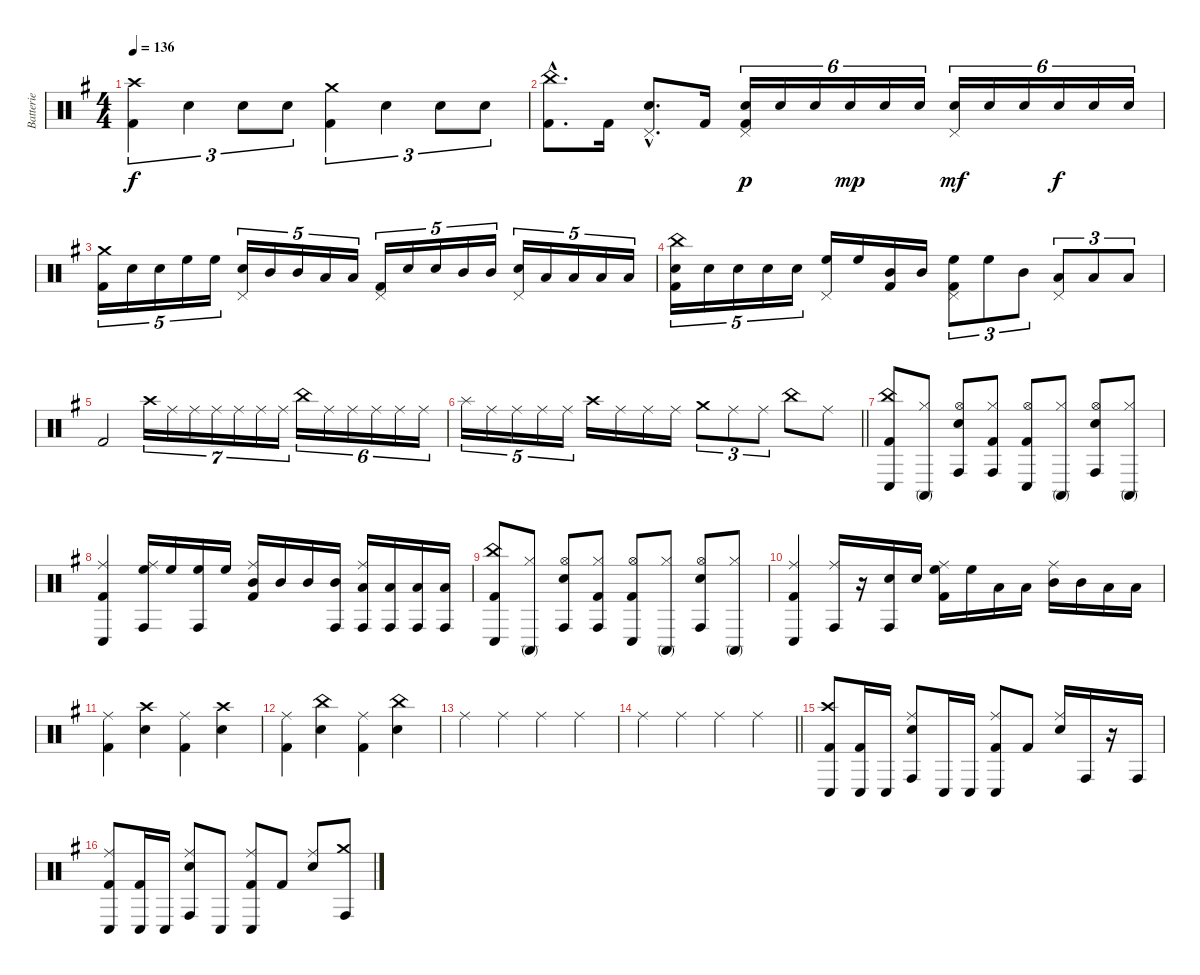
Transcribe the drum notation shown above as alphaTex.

\track ("Batterie" "Batterie") {instrument percussion}
\staff {score}
\articulation defaults
\ts (4 4)
\tempo 136
\clef neutral
\ks g
("Crash high (hit)" "Kick (hit) 2").4{tu (3 2) dy f} "Snare (hit) 2".4{tu (3 2)} "Snare (hit) 2".8{tu (3 2)} "Snare (hit) 2".8{tu (3 2)} ("Crash medium (hit)" "Kick (hit) 2").4{tu (3 2)} "Snare (hit) 2".4{tu (3 2)} "Snare (hit) 2".8{tu (3 2)} "Snare (hit) 2".8{tu (3 2)} |
("China (hit)"{hac} "Kick (hit) 2"{hac}).8{d} "Kick (hit) 2".16 ("Pedal Hi-Hat (hit)"{hac} "Snare (hit) 2"{hac}).8{d} "Kick (hit) 2".16 ("Pedal Hi-Hat (hit)" "Snare (hit) 2" "Kick (hit) 2").16{tu (6 4) dy p} "Snare (hit) 2".16{tu (6 4)} "Snare (hit) 2".16{tu (6 4)} "Snare (hit) 2".16{tu (6 4) dy mp} "Snare (hit) 2".16{tu (6 4)} "Snare (hit) 2".16{tu (6 4)} ("Pedal Hi-Hat (hit)" "Snare (hit) 2").16{tu (6 4) dy mf} "Snare (hit) 2".16{tu (6 4)} "Snare (hit) 2".16{tu (6 4)} "Snare (hit) 2".16{tu (6 4) dy f} "Snare (hit) 2".16{tu (6 4)} "Snare (hit) 2".16{tu (6 4)} |
("Crash medium (hit)" "Kick (hit) 2").16{tu (5 4)} "Snare (hit) 2".16{tu (5 4)} "Snare (hit) 2".16{tu (5 4)} "High Floor Tom (hit)".16{tu (5 4)} "High Floor Tom (hit)".16{tu (5 4)} ("Pedal Hi-Hat (hit)" "Snare (hit) 2").16{tu (5 4)} "Mid Tom (hit)".16{tu (5 4)} "Mid Tom (hit)".16{tu (5 4)} "Low Tom (hit)".16{tu (5 4)} "Low Tom (hit)".16{tu (5 4)} ("Pedal Hi-Hat (hit)" "Kick (hit) 2").16{tu (5 4)} "Snare (hit) 2".16{tu (5 4)} "Snare (hit) 2".16{tu (5 4)} "Mid Tom (hit)".16{tu (5 4)} "Mid Tom (hit)".16{tu (5 4)} ("Pedal Hi-Hat (hit)" "Snare (hit) 2").16{tu (5 4)} "Low Tom (hit)".16{tu (5 4)} "Low Tom (hit)".16{tu (5 4)} "Low Floor Tom (hit)".16{tu (5 4)} "Low Floor Tom (hit)".16{tu (5 4)} |
("China (hit)" "Snare (hit) 2" "Kick (hit) 2").16{tu (5 4)} "Snare (hit) 2".16{tu (5 4)} "Snare (hit) 2".16{tu (5 4)} "Snare (hit) 2".16{tu (5 4)} "Snare (hit) 2".16{tu (5 4)} ("Pedal Hi-Hat (hit)" "High Floor Tom (hit)").16 "High Floor Tom (hit)".16 ("Mid Tom (hit)" "Kick (hit) 2").16 "Mid Tom (hit)".16 ("Pedal Hi-Hat (hit)" "High Floor Tom (hit)" "Kick (hit) 2").8{tu (3 2)} "High Floor Tom (hit)".8{tu (3 2)} "Mid Tom (hit)".8{tu (3 2)} ("Pedal Hi-Hat (hit)" "Low Tom (hit)").8{tu (3 2)} "Low Tom (hit)".8{tu (3 2)} "Low Floor Tom (hit)".8{tu (3 2)} |
"Kick (hit) 2".2 "Crash high (hit)".16{tu (7 4)} "Ride (middle)".16{tu (7 4)} "Ride (middle)".16{tu (7 4)} "Ride (middle)".16{tu (7 4)} "Ride (middle)".16{tu (7 4)} "Ride (middle)".16{tu (7 4)} "Ride (middle)".16{tu (7 4)} "China (hit)".16{tu (6 4)} "Ride (middle)".16{tu (6 4)} "Ride (middle)".16{tu (6 4)} "Ride (middle)".16{tu (6 4)} "Ride (middle)".16{tu (6 4)} "Ride (middle)".16{tu (6 4)} |
\barLineRight lightlight "Splash (hit)".16{tu (5 4)} "Ride (middle)".16{tu (5 4)} "Ride (middle)".16{tu (5 4)} "Ride (middle)".16{tu (5 4)} "Ride (middle)".16{tu (5 4)} "Crash high (hit)".16 "Ride (middle)".16 "Ride (middle)".16 "Ride (middle)".16 "Crash medium (hit)".8{tu (3 2)} "Ride (middle)".8{tu (3 2)} "Ride (middle)".8{tu (3 2)} "China (hit)".8 "Ride (middle)".8
|
("China (hit)" "Conga low (hit)" "Kick (hit) 2").8{volume 13} ("Hi-Hat (closed)" "Conga high (mute)").8 ("Hi-Hat (open)" "Conga high (hit)" "Snare (hit) 2").8 ("Hi-Hat (closed)" "Conga high (hit)" "Kick (hit) 2").8 ("Hi-Hat (open)" "Conga low (hit)" "Kick (hit) 2").8 ("Hi-Hat (closed)" "Conga high (mute)").8 ("Hi-Hat (open)" "Conga high (hit)" "Snare (hit) 2").8 ("Hi-Hat (closed)" "Conga high (mute)").8 |
("Ride (middle)" "Conga low (hit)" "Kick (hit) 2").4 ("Ride (middle)" "High Floor Tom (hit)" "Conga high (hit)").16 "High Floor Tom (hit)".16 ("High Floor Tom (hit)" "Conga high (hit)").16 "High Floor Tom (hit)".16 ("Ride (middle)" "Mid Tom (hit)" "Kick (hit) 2").16 "Mid Tom (hit)".16 "Mid Tom (hit)".16 ("Mid Tom (hit)" "Conga high (hit)").16 ("Ride (middle)" "Low Tom (hit)" "Conga high (hit)").16 ("Low Tom (hit)" "Conga high (hit)").16 ("Low Floor Tom (hit)" "Conga high (hit)").16 ("Low Floor Tom (hit)" "Conga high (hit)").16 |
("China (hit)" "Conga low (hit)" "Kick (hit) 2").8 ("Hi-Hat (closed)" "Conga high (mute)").8 ("Hi-Hat (open)" "Conga high (hit)" "Snare (hit) 2").8 ("Hi-Hat (closed)" "Conga high (hit)" "Kick (hit) 2").8 ("Hi-Hat (open)" "Conga low (hit)" "Kick (hit) 2").8 ("Hi-Hat (closed)" "Conga high (mute)").8 ("Hi-Hat (open)" "Conga high (hit)" "Snare (hit) 2").8 ("Hi-Hat (closed)" "Conga high (mute)").8 |
("Ride (middle)" "Conga low (hit)" "Kick (hit) 2").4 ("Ride (middle)" "Conga high (hit)").16 r.16 ("Conga high (hit)" "Snare (hit) 2").16 "Snare (hit) 2".16 ("Ride (middle)" "High Floor Tom (hit)" "Kick (hit) 2").16 "High Floor Tom (hit)".16 "Low Tom (hit)".16 "Low Tom (hit)".16 ("Ride (middle)" "Mid Tom (hit)").16 "Mid Tom (hit)".16 "Low Floor Tom (hit)".16 "Low Floor Tom (hit)".16 |
("Ride (middle)" "Kick (hit) 2").4 ("Crash high (hit)" "Snare (hit) 2").4 ("Ride (middle)" "Kick (hit) 2").4 ("Crash high (hit)" "Snare (hit) 2").4 |
("Ride (middle)" "Kick (hit) 2").4 ("China (hit)" "Snare (hit) 2").4 ("Ride (middle)" "Kick (hit) 2").4 ("China (hit)" "Snare (hit) 2").4 |
"Ride (middle)".4 "Ride (middle)".4 "Ride (middle)".4 "Ride (middle)".4 |
\barLineRight lightlight "Ride (middle)".4 "Ride (middle)".4 "Ride (middle)".4 "Ride (middle)".4
|
("Crash high (hit)" "Conga low (hit)" "Kick (hit) 2").8 ("Conga low (hit)" "Kick (hit) 2").16 "Conga low (hit)".16 ("Ride (middle)" "Conga high (hit)" "Snare (hit) 2").8 "Conga low (hit)".16 "Conga low (hit)".16 ("Ride (middle)" "Conga low (hit)" "Kick (hit) 2").8 "Kick (hit) 2".8 ("Ride (middle)" "Snare (hit) 2").16 "Conga high (hit)".16 r.16 "Conga high (hit)".16 |
("Ride (middle)" "Conga low (hit)" "Kick (hit) 2").8 ("Conga low (hit)" "Kick (hit) 2").16 "Conga low (hit)".16 ("Ride (middle)" "Conga high (hit)" "Snare (hit) 2").8 "Conga low (hit)".8 ("Ride (middle)" "Conga low (hit)" "Kick (hit) 2").8 "Kick (hit) 2".8 ("Ride (middle)" "Snare (hit) 2").8 ("Crash medium (hit)" "Conga high (hit)").8
